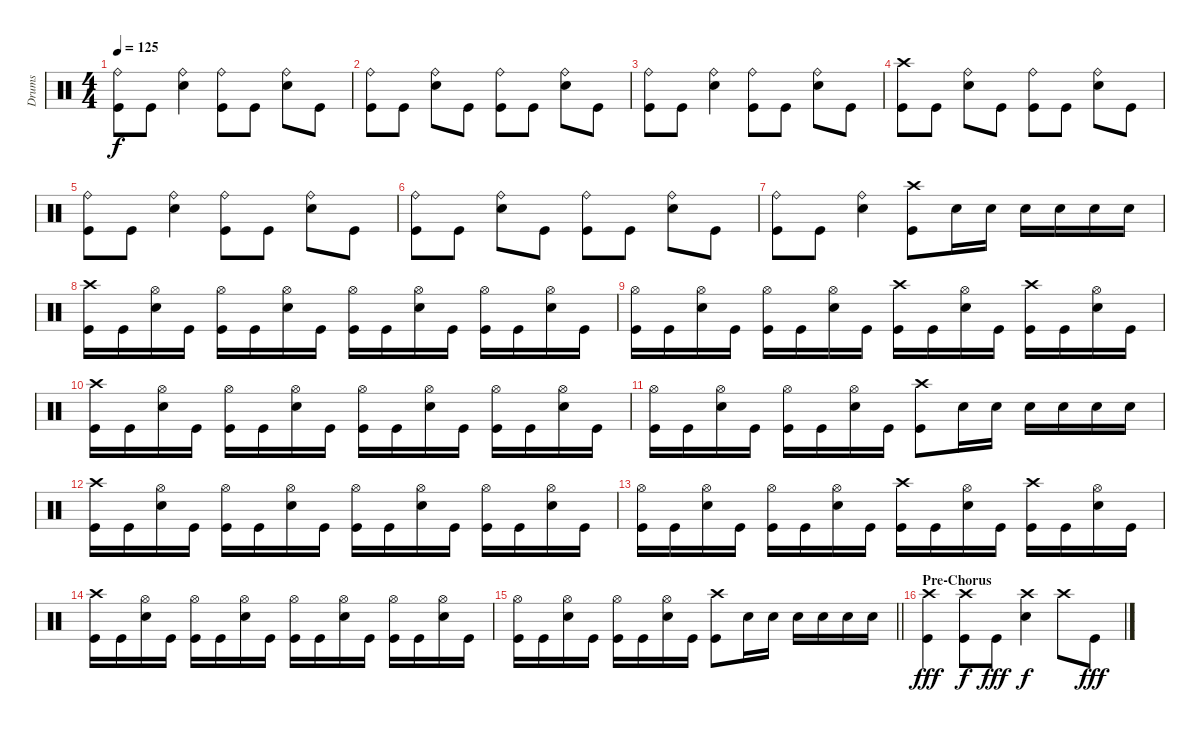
\track ("Drums" "Drums") {instrument percussion}
\staff {score}
\articulation defaults
\ts (4 4)
\tempo 125
\clef neutral
\ks c
("Ride (bell)" "Kick (hit)").8{dy f} "Kick (hit)".8 ("Ride (bell)" "Electric Snare (hit)").4 ("Ride (bell)" "Kick (hit)").8 "Kick (hit)".8 ("Ride (bell)" "Electric Snare (hit)").8 "Kick (hit)".8 |
("Ride (bell)" "Kick (hit)").8 "Kick (hit)".8 ("Ride (bell)" "Electric Snare (hit)").8 "Kick (hit)".8 ("Ride (bell)" "Kick (hit)").8 "Kick (hit)".8 ("Ride (bell)" "Electric Snare (hit)").8 "Kick (hit)".8 |
("Ride (bell)" "Kick (hit)").8 "Kick (hit)".8 ("Ride (bell)" "Electric Snare (hit)").4 ("Ride (bell)" "Kick (hit)").8 "Kick (hit)".8 ("Ride (bell)" "Electric Snare (hit)").8 "Kick (hit)".8 |
("Crash high (hit)" "Kick (hit)").8 "Kick (hit)".8 ("Ride (bell)" "Electric Snare (hit)").8 "Kick (hit)".8 ("Ride (bell)" "Kick (hit)").8 "Kick (hit)".8 ("Ride (bell)" "Electric Snare (hit)").8 "Kick (hit)".8 |
("Ride (bell)" "Kick (hit)").8 "Kick (hit)".8 ("Ride (bell)" "Electric Snare (hit)").4 ("Ride (bell)" "Kick (hit)").8 "Kick (hit)".8 ("Ride (bell)" "Electric Snare (hit)").8 "Kick (hit)".8 |
("Ride (bell)" "Kick (hit)").8 "Kick (hit)".8 ("Ride (bell)" "Electric Snare (hit)").8 "Kick (hit)".8 ("Ride (bell)" "Kick (hit)").8 "Kick (hit)".8 ("Ride (bell)" "Electric Snare (hit)").8 "Kick (hit)".8 |
("Ride (bell)" "Kick (hit)").8 "Kick (hit)".8 ("Ride (bell)" "Electric Snare (hit)").4 ("Crash high (hit)" "Kick (hit)").8 "Electric Snare (hit)".16 "Electric Snare (hit)".16 "Electric Snare (hit)".16 "Electric Snare (hit)".16 "Electric Snare (hit)".16 "Electric Snare (hit)".16 |
("Crash high (hit)" "Kick (hit)").16 "Kick (hit)".16 ("Hi-Hat (open)" "Electric Snare (hit)").16 "Kick (hit)".16 ("Hi-Hat (open)" "Kick (hit)").16 "Kick (hit)".16 ("Hi-Hat (open)" "Electric Snare (hit)").16 "Kick (hit)".16 ("Hi-Hat (open)" "Kick (hit)").16 "Kick (hit)".16 ("Hi-Hat (open)" "Electric Snare (hit)").16 "Kick (hit)".16 ("Hi-Hat (open)" "Kick (hit)").16 "Kick (hit)".16 ("Hi-Hat (open)" "Electric Snare (hit)").16 "Kick (hit)".16 |
("Hi-Hat (open)" "Kick (hit)").16 "Kick (hit)".16 ("Hi-Hat (open)" "Electric Snare (hit)").16 "Kick (hit)".16 ("Hi-Hat (open)" "Kick (hit)").16 "Kick (hit)".16 ("Hi-Hat (open)" "Electric Snare (hit)").16 "Kick (hit)".16 ("Crash high (hit)" "Kick (hit)").16 "Kick (hit)".16 ("Hi-Hat (open)" "Electric Snare (hit)").16 "Kick (hit)".16 ("Crash high (hit)" "Kick (hit)").16 "Kick (hit)".16 ("Hi-Hat (open)" "Electric Snare (hit)").16 "Kick (hit)".16 |
("Crash high (hit)" "Kick (hit)").16 "Kick (hit)".16 ("Hi-Hat (open)" "Electric Snare (hit)").16 "Kick (hit)".16 ("Hi-Hat (open)" "Kick (hit)").16 "Kick (hit)".16 ("Hi-Hat (open)" "Electric Snare (hit)").16 "Kick (hit)".16 ("Hi-Hat (open)" "Kick (hit)").16 "Kick (hit)".16 ("Hi-Hat (open)" "Electric Snare (hit)").16 "Kick (hit)".16 ("Hi-Hat (open)" "Kick (hit)").16 "Kick (hit)".16 ("Hi-Hat (open)" "Electric Snare (hit)").16 "Kick (hit)".16 |
("Hi-Hat (open)" "Kick (hit)").16 "Kick (hit)".16 ("Hi-Hat (open)" "Electric Snare (hit)").16 "Kick (hit)".16 ("Hi-Hat (open)" "Kick (hit)").16 "Kick (hit)".16 ("Hi-Hat (open)" "Electric Snare (hit)").16 "Kick (hit)".16 ("Crash high (hit)" "Kick (hit)").8 "Electric Snare (hit)".16 "Electric Snare (hit)".16 "Electric Snare (hit)".16 "Electric Snare (hit)".16 "Electric Snare (hit)".16 "Electric Snare (hit)".16 |
("Crash high (hit)" "Kick (hit)").16 "Kick (hit)".16 ("Hi-Hat (open)" "Electric Snare (hit)").16 "Kick (hit)".16 ("Hi-Hat (open)" "Kick (hit)").16 "Kick (hit)".16 ("Hi-Hat (open)" "Electric Snare (hit)").16 "Kick (hit)".16 ("Hi-Hat (open)" "Kick (hit)").16 "Kick (hit)".16 ("Hi-Hat (open)" "Electric Snare (hit)").16 "Kick (hit)".16 ("Hi-Hat (open)" "Kick (hit)").16 "Kick (hit)".16 ("Hi-Hat (open)" "Electric Snare (hit)").16 "Kick (hit)".16 |
("Hi-Hat (open)" "Kick (hit)").16 "Kick (hit)".16 ("Hi-Hat (open)" "Electric Snare (hit)").16 "Kick (hit)".16 ("Hi-Hat (open)" "Kick (hit)").16 "Kick (hit)".16 ("Hi-Hat (open)" "Electric Snare (hit)").16 "Kick (hit)".16 ("Crash high (hit)" "Kick (hit)").16 "Kick (hit)".16 ("Hi-Hat (open)" "Electric Snare (hit)").16 "Kick (hit)".16 ("Crash high (hit)" "Kick (hit)").16 "Kick (hit)".16 ("Hi-Hat (open)" "Electric Snare (hit)").16 "Kick (hit)".16 |
("Crash high (hit)" "Kick (hit)").16 "Kick (hit)".16 ("Hi-Hat (open)" "Electric Snare (hit)").16 "Kick (hit)".16 ("Hi-Hat (open)" "Kick (hit)").16 "Kick (hit)".16 ("Hi-Hat (open)" "Electric Snare (hit)").16 "Kick (hit)".16 ("Hi-Hat (open)" "Kick (hit)").16 "Kick (hit)".16 ("Hi-Hat (open)" "Electric Snare (hit)").16 "Kick (hit)".16 ("Hi-Hat (open)" "Kick (hit)").16 "Kick (hit)".16 ("Hi-Hat (open)" "Electric Snare (hit)").16 "Kick (hit)".16 |
\barLineRight lightlight
("Hi-Hat (open)" "Kick (hit)").16 "Kick (hit)".16 ("Hi-Hat (open)" "Electric Snare (hit)").16 "Kick (hit)".16 ("Hi-Hat (open)" "Kick (hit)").16 "Kick (hit)".16 ("Hi-Hat (open)" "Electric Snare (hit)").16 "Kick (hit)".16 ("Crash high (hit)" "Kick (hit)").8 "Electric Snare (hit)".16 "Electric Snare (hit)".16 "Electric Snare (hit)".16 "Electric Snare (hit)".16 "Electric Snare (hit)".16 "Electric Snare (hit)".16 |
\section ("" "Pre-Chorus")
("Crash high (hit)" "Kick (hit)").4{dy fff} ("Crash high (hit)" "Kick (hit)").8{dy f} "Kick (hit)".8{dy fff} ("Crash high (hit)" "Electric Snare (hit)").4{dy f} "Crash high (hit)".8 "Kick (hit)".8{dy fff}
